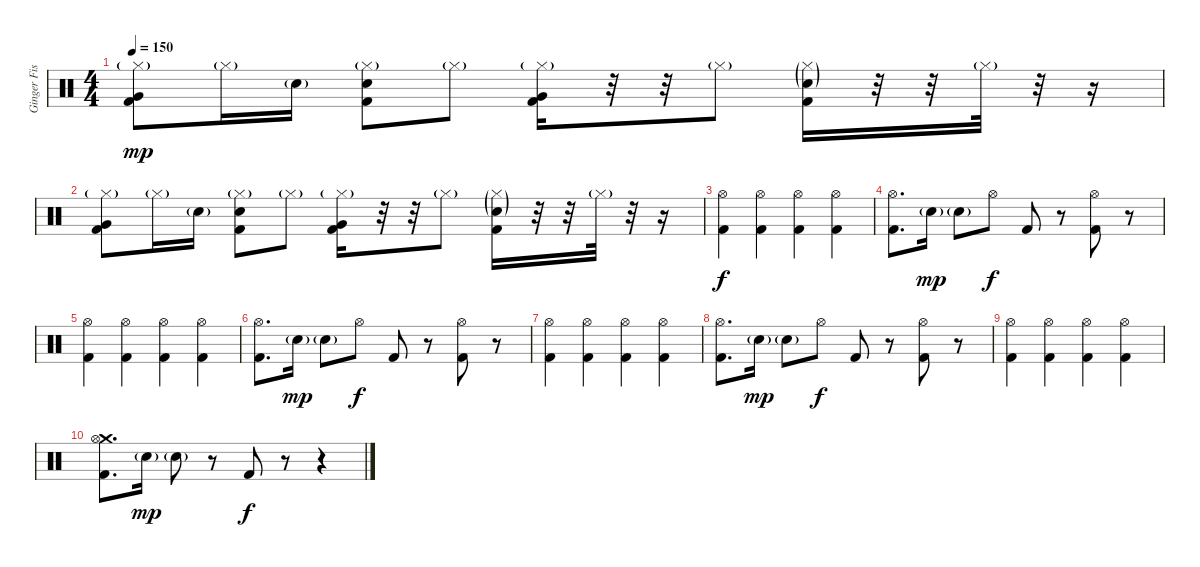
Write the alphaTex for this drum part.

\track ("Ginger Fish" "Ginger Fis") {instrument percussion}
\staff {score}
\articulation defaults
\ts (4 4)
\tempo 150
\clef neutral
\ks c
("Hi-Hat (closed)"{g} "Very Low Tom (hit)" "Kick (hit) 2").8{dy mp} "Hi-Hat (closed)"{g}.16 "Electric Snare (hit)"{g}.16 ("Hi-Hat (closed)"{g} "Electric Snare (hit)" "Kick (hit) 2").8 "Hi-Hat (closed)"{g}.8 ("Hi-Hat (closed)"{g} "Very Low Tom (hit)" "Kick (hit) 2").16 r.32 r.32 "Hi-Hat (closed)"{g}.8 ("Hi-Hat (closed)"{g} "Electric Snare (hit)"{g} "Kick (hit) 2").16 r.32 r.32 "Hi-Hat (closed)"{g}.32 r.32 r.16 |
("Hi-Hat (closed)"{g} "Very Low Tom (hit)" "Kick (hit) 2").8 "Hi-Hat (closed)"{g}.16 "Electric Snare (hit)"{g}.16 ("Hi-Hat (closed)"{g} "Electric Snare (hit)" "Kick (hit) 2").8 "Hi-Hat (closed)"{g}.8 ("Hi-Hat (closed)"{g} "Very Low Tom (hit)" "Kick (hit) 2").16 r.32 r.32 "Hi-Hat (closed)"{g}.8 ("Hi-Hat (closed)"{g} "Electric Snare (hit)"{g} "Kick (hit) 2").16 r.32 r.32 "Hi-Hat (closed)"{g}.32 r.32 r.16 |
("Hi-Hat (open)" "Kick (hit) 2").4{dy f} ("Hi-Hat (open)" "Kick (hit) 2").4 ("Hi-Hat (open)" "Kick (hit) 2").4 ("Hi-Hat (open)" "Kick (hit) 2").4 |
("Hi-Hat (open)" "Kick (hit) 2").8{d} "Electric Snare (hit)"{g}.16{dy mp} "Electric Snare (hit)"{g}.8 "Hi-Hat (open)".8{dy f} "Kick (hit) 2".8 r.8 ("Hi-Hat (open)" "Kick (hit) 2").8 r.8 |
("Hi-Hat (open)" "Kick (hit) 2").4 ("Hi-Hat (open)" "Kick (hit) 2").4 ("Hi-Hat (open)" "Kick (hit) 2").4 ("Hi-Hat (open)" "Kick (hit) 2").4 |
("Hi-Hat (open)" "Kick (hit) 2").8{d} "Electric Snare (hit)"{g}.16{dy mp} "Electric Snare (hit)"{g}.8 "Hi-Hat (open)".8{dy f} "Kick (hit) 2".8 r.8 ("Hi-Hat (open)" "Kick (hit) 2").8 r.8 |
("Hi-Hat (open)" "Kick (hit) 2").4 ("Hi-Hat (open)" "Kick (hit) 2").4 ("Hi-Hat (open)" "Kick (hit) 2").4 ("Hi-Hat (open)" "Kick (hit) 2").4 |
("Hi-Hat (open)" "Kick (hit) 2").8{d} "Electric Snare (hit)"{g}.16{dy mp} "Electric Snare (hit)"{g}.8 "Hi-Hat (open)".8{dy f} "Kick (hit) 2".8 r.8 ("Hi-Hat (open)" "Kick (hit) 2").8 r.8 |
("Hi-Hat (open)" "Kick (hit) 2").4 ("Hi-Hat (open)" "Kick (hit) 2").4 ("Hi-Hat (open)" "Kick (hit) 2").4 ("Hi-Hat (open)" "Kick (hit) 2").4 |
("Crash medium (hit)" "Hi-Hat (open)" "Kick (hit) 2").8{d} "Electric Snare (hit)"{g}.16{dy mp} "Electric Snare (hit)"{g}.8 r.8 "Kick (hit) 2".8{dy f} r.8 r.4
